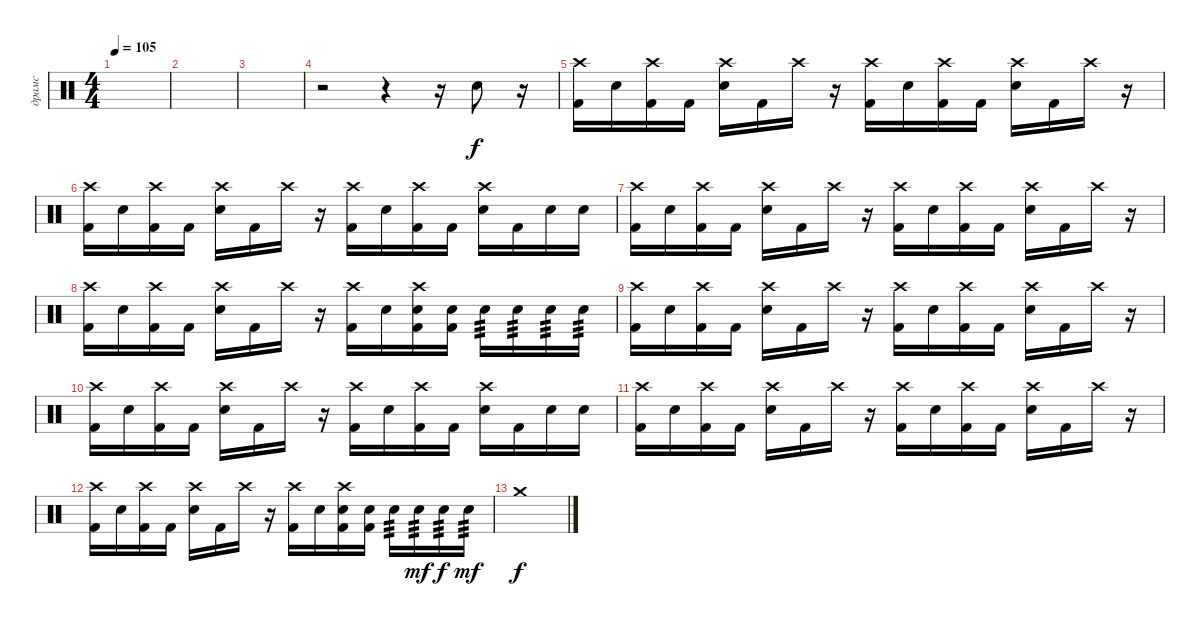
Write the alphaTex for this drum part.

\track ("драмс" "драмс") {instrument percussion}
\staff {score}
\articulation defaults
\ts (4 4)
\tempo 105
\clef neutral
\ks c
|
|
|
r.2 r.4 r.16 "Electric Snare (hit)".8 r.16 |
("Crash high (hit)" "Kick (hit) 2").16 "Electric Snare (hit)".16 ("Crash high (hit)" "Kick (hit) 2").16 "Kick (hit) 2".16 ("Crash high (hit)" "Electric Snare (hit)").16 "Kick (hit) 2".16 "Crash high (hit)".16 r.16 ("Crash high (hit)" "Kick (hit) 2").16 "Electric Snare (hit)".16 ("Crash high (hit)" "Kick (hit) 2").16 "Kick (hit) 2".16 ("Crash high (hit)" "Electric Snare (hit)").16 "Kick (hit) 2".16 "Crash high (hit)".16 r.16 |
("Crash high (hit)" "Kick (hit) 2").16 "Electric Snare (hit)".16 ("Crash high (hit)" "Kick (hit) 2").16 "Kick (hit) 2".16 ("Crash high (hit)" "Electric Snare (hit)").16 "Kick (hit) 2".16 "Crash high (hit)".16 r.16 ("Crash high (hit)" "Kick (hit) 2").16 "Electric Snare (hit)".16 ("Crash high (hit)" "Kick (hit) 2").16 "Kick (hit) 2".16 ("Crash high (hit)" "Electric Snare (hit)").16 "Kick (hit) 2".16 "Electric Snare (hit)".16 "Electric Snare (hit)".16 |
("Crash high (hit)" "Kick (hit) 2").16 "Electric Snare (hit)".16 ("Crash high (hit)" "Kick (hit) 2").16 "Kick (hit) 2".16 ("Crash high (hit)" "Electric Snare (hit)").16 "Kick (hit) 2".16 "Crash high (hit)".16 r.16 ("Crash high (hit)" "Kick (hit) 2").16 "Electric Snare (hit)".16 ("Crash high (hit)" "Kick (hit) 2").16 "Kick (hit) 2".16 ("Crash high (hit)" "Electric Snare (hit)").16 "Kick (hit) 2".16 "Crash high (hit)".16 r.16 |
("Crash high (hit)" "Kick (hit) 2").16 "Electric Snare (hit)".16 ("Crash high (hit)" "Kick (hit) 2").16 "Kick (hit) 2".16 ("Crash high (hit)" "Electric Snare (hit)").16 "Kick (hit) 2".16 "Crash high (hit)".16 r.16 ("Crash high (hit)" "Kick (hit) 2").16 "Electric Snare (hit)".16 ("Crash high (hit)" "Electric Snare (hit)" "Kick (hit) 2").16 ("Electric Snare (hit)" "Kick (hit) 2").16 "Electric Snare (hit)".16{tp 3} "Electric Snare (hit)".16{tp 3} "Electric Snare (hit)".16{tp 3} "Electric Snare (hit)".16{tp 3} |
("Crash high (hit)" "Kick (hit) 2").16 "Electric Snare (hit)".16 ("Crash high (hit)" "Kick (hit) 2").16 "Kick (hit) 2".16 ("Crash high (hit)" "Electric Snare (hit)").16 "Kick (hit) 2".16 "Crash high (hit)".16 r.16 ("Crash high (hit)" "Kick (hit) 2").16 "Electric Snare (hit)".16 ("Crash high (hit)" "Kick (hit) 2").16 "Kick (hit) 2".16 ("Crash high (hit)" "Electric Snare (hit)").16 "Kick (hit) 2".16 "Crash high (hit)".16 r.16 |
("Crash high (hit)" "Kick (hit) 2").16 "Electric Snare (hit)".16 ("Crash high (hit)" "Kick (hit) 2").16 "Kick (hit) 2".16 ("Crash high (hit)" "Electric Snare (hit)").16 "Kick (hit) 2".16 "Crash high (hit)".16 r.16 ("Crash high (hit)" "Kick (hit) 2").16 "Electric Snare (hit)".16 ("Crash high (hit)" "Kick (hit) 2").16 "Kick (hit) 2".16 ("Crash high (hit)" "Electric Snare (hit)").16 "Kick (hit) 2".16 "Electric Snare (hit)".16 "Electric Snare (hit)".16 |
("Crash high (hit)" "Kick (hit) 2").16 "Electric Snare (hit)".16 ("Crash high (hit)" "Kick (hit) 2").16 "Kick (hit) 2".16 ("Crash high (hit)" "Electric Snare (hit)").16 "Kick (hit) 2".16 "Crash high (hit)".16 r.16 ("Crash high (hit)" "Kick (hit) 2").16 "Electric Snare (hit)".16 ("Crash high (hit)" "Kick (hit) 2").16 "Kick (hit) 2".16 ("Crash high (hit)" "Electric Snare (hit)").16 "Kick (hit) 2".16 "Crash high (hit)".16 r.16 |
("Crash high (hit)" "Kick (hit) 2").16 "Electric Snare (hit)".16 ("Crash high (hit)" "Kick (hit) 2").16 "Kick (hit) 2".16 ("Crash high (hit)" "Electric Snare (hit)").16 "Kick (hit) 2".16 "Crash high (hit)".16 r.16 ("Crash high (hit)" "Kick (hit) 2").16 "Electric Snare (hit)".16 ("Crash high (hit)" "Electric Snare (hit)" "Kick (hit) 2").16 ("Electric Snare (hit)" "Kick (hit) 2").16 "Electric Snare (hit)".16{tp 3} "Electric Snare (hit)".16{tp 3 dy mf} "Electric Snare (hit)".16{tp 3 dy f} "Electric Snare (hit)".16{tp 3 dy mf} |
"Crash medium (hit)".1{dy f}
